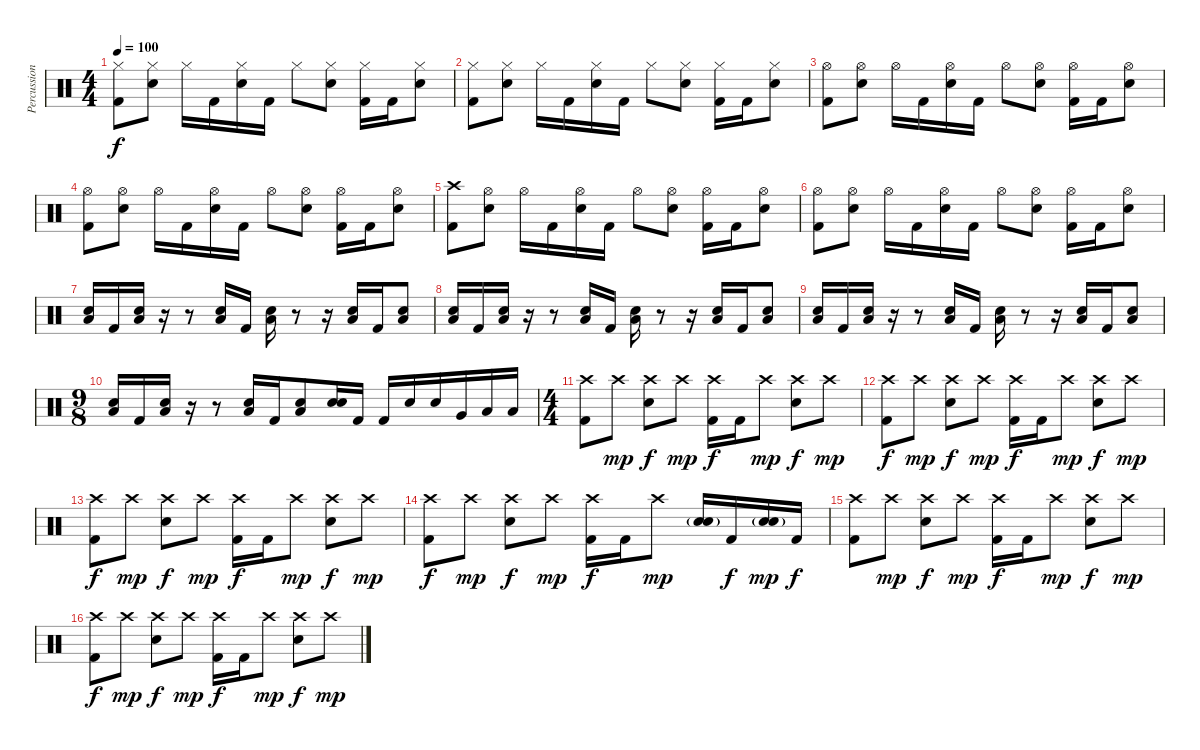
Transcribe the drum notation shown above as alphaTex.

\track ("Percussion" "Percussion") {instrument percussion}
\staff {score}
\articulation defaults
\ts (4 4)
\tempo 100
\clef neutral
\ks c
("Hi-Hat (closed)" "Kick (hit) 2").8{dy f} ("Hi-Hat (closed)" "Electric Snare (hit)").8 "Hi-Hat (closed)".16 "Kick (hit) 2".16 ("Hi-Hat (closed)" "Electric Snare (hit)").16 "Kick (hit) 2".16 "Hi-Hat (closed)".8 ("Hi-Hat (closed)" "Electric Snare (hit)").8 ("Hi-Hat (closed)" "Kick (hit) 2").16 "Kick (hit) 2".16 ("Hi-Hat (closed)" "Electric Snare (hit)").8 |
("Hi-Hat (closed)" "Kick (hit) 2").8 ("Hi-Hat (closed)" "Electric Snare (hit)").8 "Hi-Hat (closed)".16 "Kick (hit) 2".16 ("Hi-Hat (closed)" "Electric Snare (hit)").16 "Kick (hit) 2".16 "Hi-Hat (closed)".8 ("Hi-Hat (closed)" "Electric Snare (hit)").8 ("Hi-Hat (closed)" "Kick (hit) 2").16 "Kick (hit) 2".16 ("Hi-Hat (closed)" "Electric Snare (hit)").8 |
("Hi-Hat (open)" "Kick (hit) 2").8 ("Hi-Hat (open)" "Electric Snare (hit)").8 "Hi-Hat (open)".16 "Kick (hit) 2".16 ("Hi-Hat (open)" "Electric Snare (hit)").16 "Kick (hit) 2".16 "Hi-Hat (open)".8 ("Hi-Hat (open)" "Electric Snare (hit)").8 ("Hi-Hat (open)" "Kick (hit) 2").16 "Kick (hit) 2".16 ("Hi-Hat (open)" "Electric Snare (hit)").8 |
("Hi-Hat (open)" "Kick (hit) 2").8 ("Hi-Hat (open)" "Electric Snare (hit)").8 "Hi-Hat (open)".16 "Kick (hit) 2".16 ("Hi-Hat (open)" "Electric Snare (hit)").16 "Kick (hit) 2".16 "Hi-Hat (open)".8 ("Hi-Hat (open)" "Electric Snare (hit)").8 ("Hi-Hat (open)" "Kick (hit) 2").16 "Kick (hit) 2".16 ("Hi-Hat (open)" "Electric Snare (hit)").8 |
("Crash high (hit)" "Kick (hit) 2").8 ("Hi-Hat (open)" "Electric Snare (hit)").8 "Hi-Hat (open)".16 "Kick (hit) 2".16 ("Hi-Hat (open)" "Electric Snare (hit)").16 "Kick (hit) 2".16 "Hi-Hat (open)".8 ("Hi-Hat (open)" "Electric Snare (hit)").8 ("Hi-Hat (open)" "Kick (hit) 2").16 "Kick (hit) 2".16 ("Hi-Hat (open)" "Electric Snare (hit)").8 |
("Hi-Hat (open)" "Kick (hit) 2").8 ("Hi-Hat (open)" "Electric Snare (hit)").8 "Hi-Hat (open)".16 "Kick (hit) 2".16 ("Hi-Hat (open)" "Electric Snare (hit)").16 "Kick (hit) 2".16 "Hi-Hat (open)".8 ("Hi-Hat (open)" "Electric Snare (hit)").8 ("Hi-Hat (open)" "Kick (hit) 2").16 "Kick (hit) 2".16 ("Hi-Hat (open)" "Electric Snare (hit)").8 |
("Electric Snare (hit)" "Low Tom (hit)").16 "Kick (hit) 2".16 ("Electric Snare (hit)" "Low Tom (hit)").16 r.16 r.8 ("Electric Snare (hit)" "Low Tom (hit)").16 "Kick (hit) 2".16 ("Electric Snare (hit)" "Low Tom (hit)").16 r.8 r.16 ("Electric Snare (hit)" "Low Tom (hit)").16 "Kick (hit) 2".16 ("Electric Snare (hit)" "Low Tom (hit)").8 |
("Electric Snare (hit)" "Low Tom (hit)").16 "Kick (hit) 2".16 ("Electric Snare (hit)" "Low Tom (hit)").16 r.16 r.8 ("Electric Snare (hit)" "Low Tom (hit)").16 "Kick (hit) 2".16 ("Electric Snare (hit)" "Low Tom (hit)").16 r.8 r.16 ("Electric Snare (hit)" "Low Tom (hit)").16 "Kick (hit) 2".16 ("Electric Snare (hit)" "Low Tom (hit)").8 |
("Electric Snare (hit)" "Low Tom (hit)").16 "Kick (hit) 2".16 ("Electric Snare (hit)" "Low Tom (hit)").16 r.16 r.8 ("Electric Snare (hit)" "Low Tom (hit)").16 "Kick (hit) 2".16 ("Electric Snare (hit)" "Low Tom (hit)").16 r.8 r.16 ("Electric Snare (hit)" "Low Tom (hit)").16 "Kick (hit) 2".16 ("Electric Snare (hit)" "Low Tom (hit)").8 |
\ts (9 8)
("Electric Snare (hit)" "Low Tom (hit)").16 "Kick (hit) 2".16 ("Electric Snare (hit)" "Low Tom (hit)").16 r.16 r.8 ("Electric Snare (hit)" "Low Tom (hit)").16 "Kick (hit) 2".16 ("Electric Snare (hit)" "Low Tom (hit)").8 ("Electric Snare (hit)" "Electric Snare (hit)").16{bd 480} "Kick (hit) 2".16 "Kick (hit) 2".16 "Electric Snare (hit)".16 "Electric Snare (hit)".16 "Very Low Tom (hit)".16 "Low Tom (hit)".16 "Low Floor Tom (hit)".16 |
\ts (4 4)
("Crash high (hit)" "Kick (hit) 2").8 "Crash high (hit)".8{dy mp} ("Crash high (hit)" "Electric Snare (hit)").8{dy f} "Crash high (hit)".8{dy mp} ("Crash high (hit)" "Kick (hit) 2").16{dy f} "Kick (hit) 2".16 "Crash high (hit)".8{dy mp} ("Crash high (hit)" "Electric Snare (hit)").8{dy f} "Crash high (hit)".8{dy mp} |
("Crash high (hit)" "Kick (hit) 2").8{dy f} "Crash high (hit)".8{dy mp} ("Crash high (hit)" "Electric Snare (hit)").8{dy f} "Crash high (hit)".8{dy mp} ("Crash high (hit)" "Kick (hit) 2").16{dy f} "Kick (hit) 2".16 "Crash high (hit)".8{dy mp} ("Crash high (hit)" "Electric Snare (hit)").8{dy f} "Crash high (hit)".8{dy mp} |
("Crash high (hit)" "Kick (hit) 2").8{dy f} "Crash high (hit)".8{dy mp} ("Crash high (hit)" "Electric Snare (hit)").8{dy f} "Crash high (hit)".8{dy mp} ("Crash high (hit)" "Kick (hit) 2").16{dy f} "Kick (hit) 2".16 "Crash high (hit)".8{dy mp} ("Crash high (hit)" "Electric Snare (hit)").8{dy f} "Crash high (hit)".8{dy mp} |
("Crash high (hit)" "Kick (hit) 2").8{dy f} "Crash high (hit)".8{dy mp} ("Crash high (hit)" "Electric Snare (hit)").8{dy f} "Crash high (hit)".8{dy mp} ("Crash high (hit)" "Kick (hit) 2").16{dy f} "Kick (hit) 2".16 "Crash high (hit)".8{dy mp} ("Electric Snare (hit)" "Electric Snare (hit)"{g}).16{bd 480} "Kick (hit) 2".16{dy f} ("Electric Snare (hit)" "Electric Snare (hit)"{g}).16{bd 480 dy mp} "Kick (hit) 2".16{dy f} |
("Crash high (hit)" "Kick (hit) 2").8 "Crash high (hit)".8{dy mp} ("Crash high (hit)" "Electric Snare (hit)").8{dy f} "Crash high (hit)".8{dy mp} ("Crash high (hit)" "Kick (hit) 2").16{dy f} "Kick (hit) 2".16 "Crash high (hit)".8{dy mp} ("Crash high (hit)" "Electric Snare (hit)").8{dy f} "Crash high (hit)".8{dy mp} |
("Crash high (hit)" "Kick (hit) 2").8{dy f} "Crash high (hit)".8{dy mp} ("Crash high (hit)" "Electric Snare (hit)").8{dy f} "Crash high (hit)".8{dy mp} ("Crash high (hit)" "Kick (hit) 2").16{dy f} "Kick (hit) 2".16 "Crash high (hit)".8{dy mp} ("Crash high (hit)" "Electric Snare (hit)").8{dy f} "Crash high (hit)".8{dy mp}
